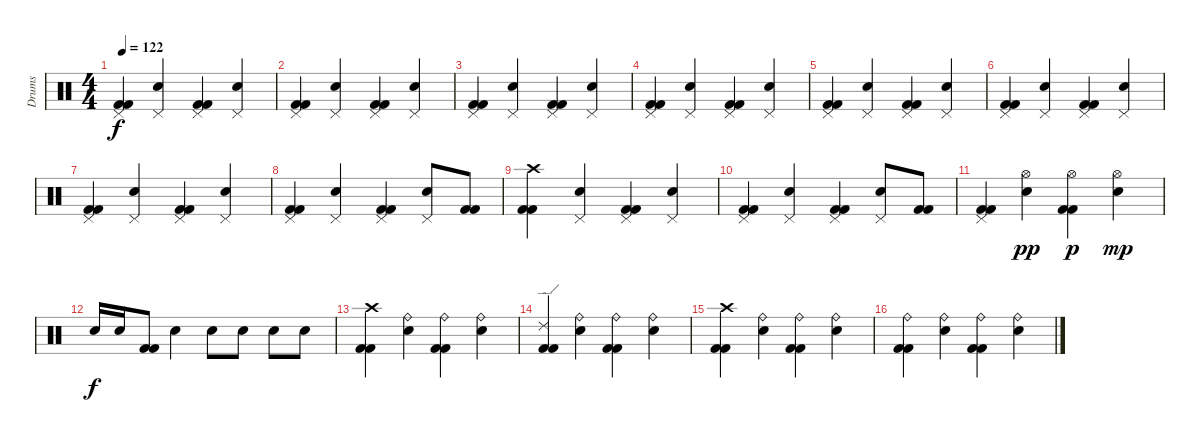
\track ("Drums" "Drums") {instrument percussion}
\staff {score}
\articulation defaults
\ts (4 4)
\tempo 122
\clef neutral
\ks c
("Pedal Hi-Hat (hit)" "Kick (hit) 2" "Kick (hit) 2").4{dy f} ("Pedal Hi-Hat (hit)" "Snare (hit) 2").4 ("Pedal Hi-Hat (hit)" "Kick (hit) 2" "Kick (hit) 2").4 ("Pedal Hi-Hat (hit)" "Snare (hit) 2").4 |
("Pedal Hi-Hat (hit)" "Kick (hit) 2" "Kick (hit) 2").4 ("Pedal Hi-Hat (hit)" "Snare (hit) 2").4 ("Pedal Hi-Hat (hit)" "Kick (hit) 2" "Kick (hit) 2").4 ("Pedal Hi-Hat (hit)" "Snare (hit) 2").4 |
("Pedal Hi-Hat (hit)" "Kick (hit) 2" "Kick (hit) 2").4 ("Pedal Hi-Hat (hit)" "Snare (hit) 2").4 ("Pedal Hi-Hat (hit)" "Kick (hit) 2" "Kick (hit) 2").4 ("Pedal Hi-Hat (hit)" "Snare (hit) 2").4 |
("Pedal Hi-Hat (hit)" "Kick (hit) 2" "Kick (hit) 2").4 ("Pedal Hi-Hat (hit)" "Snare (hit) 2").4 ("Pedal Hi-Hat (hit)" "Kick (hit) 2" "Kick (hit) 2").4 ("Pedal Hi-Hat (hit)" "Snare (hit) 2").4 |
("Pedal Hi-Hat (hit)" "Kick (hit) 2" "Kick (hit) 2").4 ("Pedal Hi-Hat (hit)" "Snare (hit) 2").4 ("Pedal Hi-Hat (hit)" "Kick (hit) 2" "Kick (hit) 2").4 ("Pedal Hi-Hat (hit)" "Snare (hit) 2").4 |
("Pedal Hi-Hat (hit)" "Kick (hit) 2" "Kick (hit) 2").4 ("Pedal Hi-Hat (hit)" "Snare (hit) 2").4 ("Pedal Hi-Hat (hit)" "Kick (hit) 2" "Kick (hit) 2").4 ("Pedal Hi-Hat (hit)" "Snare (hit) 2").4 |
("Pedal Hi-Hat (hit)" "Kick (hit) 2" "Kick (hit) 2").4 ("Pedal Hi-Hat (hit)" "Snare (hit) 2").4 ("Pedal Hi-Hat (hit)" "Kick (hit) 2" "Kick (hit) 2").4 ("Pedal Hi-Hat (hit)" "Snare (hit) 2").4 |
("Pedal Hi-Hat (hit)" "Kick (hit) 2" "Kick (hit) 2").4 ("Pedal Hi-Hat (hit)" "Snare (hit) 2").4 ("Pedal Hi-Hat (hit)" "Kick (hit) 2" "Kick (hit) 2").4 ("Pedal Hi-Hat (hit)" "Snare (hit) 2").8 ("Kick (hit) 2" "Kick (hit) 2").8 |
("Crash high (hit)" "Kick (hit) 2" "Kick (hit) 2").4 ("Pedal Hi-Hat (hit)" "Snare (hit) 2").4 ("Pedal Hi-Hat (hit)" "Kick (hit) 2" "Kick (hit) 2").4 ("Pedal Hi-Hat (hit)" "Snare (hit) 2").4 |
("Pedal Hi-Hat (hit)" "Kick (hit) 2" "Kick (hit) 2").4 ("Pedal Hi-Hat (hit)" "Snare (hit) 2").4 ("Pedal Hi-Hat (hit)" "Kick (hit) 2" "Kick (hit) 2").4 ("Pedal Hi-Hat (hit)" "Snare (hit) 2").8 ("Kick (hit) 2" "Kick (hit) 2").8 |
("Pedal Hi-Hat (hit)" "Kick (hit) 2" "Kick (hit) 2").4 ("Hi-Hat (open)" "Snare (hit) 2").4{dy pp} ("Hi-Hat (open)" "Kick (hit) 2" "Kick (hit) 2").4{dy p} ("Hi-Hat (open)" "Snare (hit) 2").4{dy mp} |
"Snare (hit) 2".16{dy f} "Snare (hit) 2".16 ("Kick (hit) 2" "Kick (hit) 2").8 "Snare (hit) 2".4 "Snare (hit) 2".8 "Snare (hit) 2".8 "Snare (hit) 2".8 "Snare (hit) 2".8 |
("Crash high (hit)" "Kick (hit) 2" "Kick (hit) 2").4 ("Ride (bell)" "Snare (hit) 2").4 ("Ride (bell)" "Kick (hit) 2" "Kick (hit) 2").4 ("Ride (bell)" "Snare (hit) 2").4 |
("Ride (edge) 2" "Kick (hit) 2" "Kick (hit) 2").4 ("Ride (bell)" "Snare (hit) 2").4 ("Ride (bell)" "Kick (hit) 2" "Kick (hit) 2").4 ("Ride (bell)" "Snare (hit) 2").4 |
("Crash high (hit)" "Kick (hit) 2" "Kick (hit) 2").4 ("Ride (bell)" "Snare (hit) 2").4 ("Ride (bell)" "Kick (hit) 2" "Kick (hit) 2").4 ("Ride (bell)" "Snare (hit) 2").4 |
("Ride (bell)" "Kick (hit) 2" "Kick (hit) 2").4 ("Ride (bell)" "Snare (hit) 2").4 ("Ride (bell)" "Kick (hit) 2" "Kick (hit) 2").4 ("Ride (bell)" "Snare (hit) 2").4
